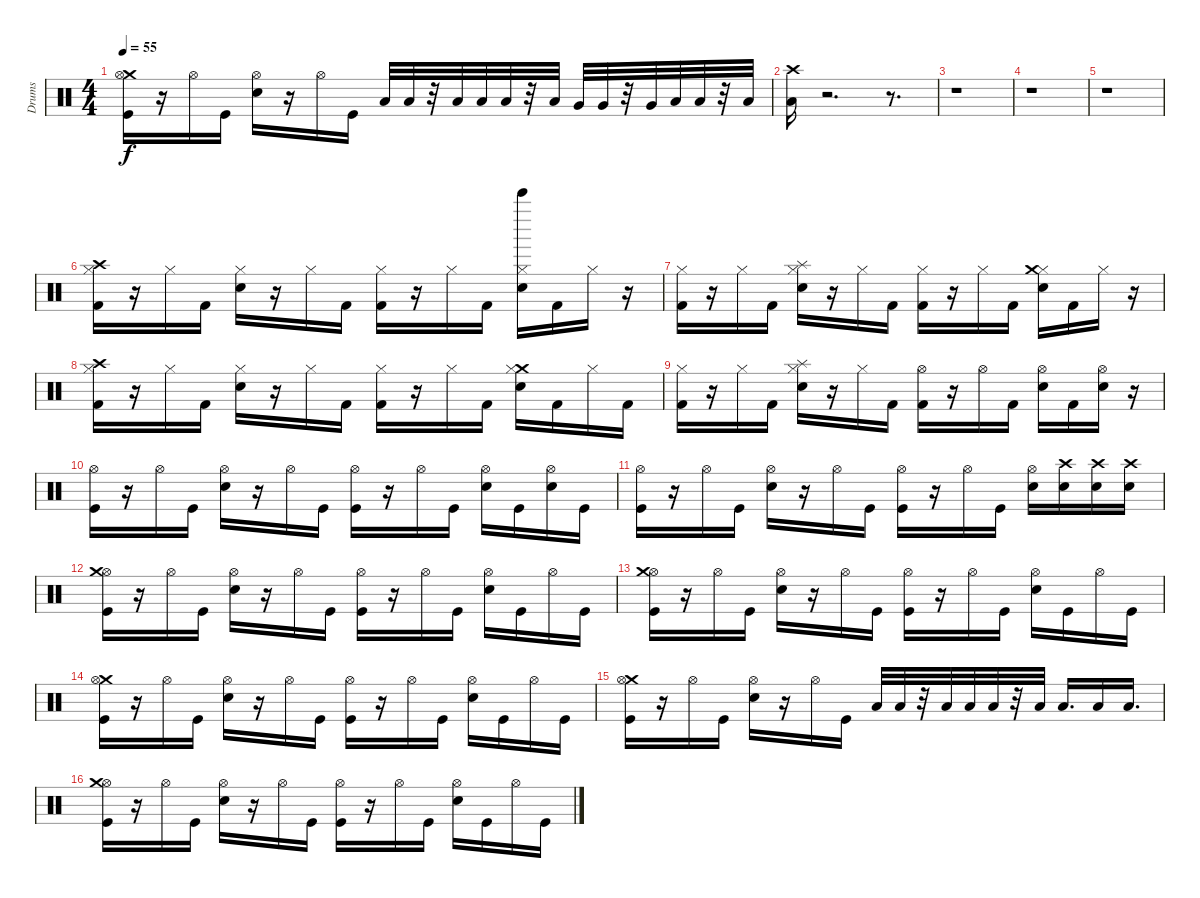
\track ("Drums" "Drums") {instrument percussion}
\staff {score}
\articulation defaults
\ts (4 4)
\tempo 55
\clef neutral
\ks c
("Crash medium (hit)" "Kick (hit)" "Hi-Hat (open)").16{dy f} r.16 "Hi-Hat (open)".16 "Kick (hit)".16 ("Electric Snare (hit)" "Hi-Hat (open)").16 r.16 "Hi-Hat (open)".16 "Kick (hit)".16 "Low Tom (hit)".32 "Low Tom (hit)".32 r.32 "Low Tom (hit)".32 "Low Tom (hit)".32 "Low Tom (hit)".32 r.32 "Low Tom (hit)".32 "Very Low Tom (hit)".32 "Very Low Tom (hit)".32 r.32 "Very Low Tom (hit)".32 "Low Floor Tom (hit)".32 "Low Floor Tom (hit)".32 r.32 "Low Floor Tom (hit)".32 |
("Low Floor Tom (hit)" "Crash high (hit)").16 r.2{d} r.8{d} |
r.1 |
r.1 |
r.1 |
("Crash high (hit)" "Hi-Hat (closed)" "Kick (hit) 2").16 r.16 "Hi-Hat (closed)".16 "Kick (hit) 2".16 ("Hi-Hat (closed)" "Electric Snare (hit)").16 r.16 "Hi-Hat (closed)".16 "Kick (hit) 2".16 ("Kick (hit) 2" "Hi-Hat (closed)").16 r.16 "Hi-Hat (closed)".16 "Kick (hit) 2".16 ("Bell Tree (hit)" "Hi-Hat (closed)" "Electric Snare (hit)").16 "Kick (hit) 2".16 "Hi-Hat (closed)".16 r.16 |
("Kick (hit) 2" "Hi-Hat (closed)").16 r.16 "Hi-Hat (closed)".16 "Kick (hit) 2".16 ("Electric Snare (hit)" "Splash (hit)" "Hi-Hat (closed)").16 r.16 "Hi-Hat (closed)".16 "Kick (hit) 2".16 ("Hi-Hat (closed)" "Kick (hit) 2").16 r.16 "Hi-Hat (closed)".16 "Kick (hit) 2".16 ("Hi-Hat (closed)" "Crash medium (hit)" "Electric Snare (hit)").16 "Kick (hit) 2".16 "Hi-Hat (closed)".16 r.16 |
("Crash high (hit)" "Hi-Hat (closed)" "Kick (hit) 2").16 r.16 "Hi-Hat (closed)".16 "Kick (hit) 2".16 ("Electric Snare (hit)" "Hi-Hat (closed)").16 r.16 "Hi-Hat (closed)".16 "Kick (hit) 2".16 ("Hi-Hat (closed)" "Kick (hit) 2").16 r.16 "Hi-Hat (closed)".16 "Kick (hit) 2".16 ("Crash medium (hit)" "Hi-Hat (closed)" "Electric Snare (hit)").16 "Kick (hit) 2".16 "Hi-Hat (closed)".16 "Kick (hit) 2".16 |
("Hi-Hat (closed)" "Kick (hit) 2").16 r.16 "Hi-Hat (closed)".16 "Kick (hit) 2".16 ("Splash (hit)" "Electric Snare (hit)" "Hi-Hat (closed)").16 r.16 "Hi-Hat (closed)".16 "Kick (hit) 2".16 ("Kick (hit) 2" "Hi-Hat (open)").16 r.16 "Hi-Hat (open)".16 "Kick (hit) 2".16 ("Hi-Hat (open)" "Metronome (bell)").16 "Kick (hit) 2".16 ("Hi-Hat (open)" "Metronome (bell)").16 r.16 |
("Hi-Hat (open)" "Kick (hit)").16 r.16 "Hi-Hat (open)".16 "Kick (hit)".16 ("Hi-Hat (open)" "Electric Snare (hit)").16 r.16 "Hi-Hat (open)".16 "Kick (hit)".16 ("Kick (hit)" "Hi-Hat (open)").16 r.16 "Hi-Hat (open)".16 "Kick (hit)".16 ("Electric Snare (hit)" "Hi-Hat (open)").16 "Kick (hit)".16 ("Electric Snare (hit)" "Hi-Hat (open)").16 "Kick (hit)".16 |
("Kick (hit)" "Hi-Hat (open)").16 r.16 "Hi-Hat (open)".16 "Kick (hit)".16 ("Electric Snare (hit)" "Hi-Hat (open)").16 r.16 "Hi-Hat (open)".16 "Kick (hit)".16 ("Kick (hit)" "Hi-Hat (open)").16 r.16 "Hi-Hat (open)".16 "Kick (hit)".16 ("Electric Snare (hit)" "Hi-Hat (open)").16 ("Crash high (hit)" "Electric Snare (hit)").16 ("Crash high (hit)" "Electric Snare (hit)").16 ("Electric Snare (hit)" "Crash high (hit)").16 |
("Kick (hit)" "Hi-Hat (open)" "Crash medium (hit)").16 r.16 "Hi-Hat (open)".16 "Kick (hit)".16 ("Hi-Hat (open)" "Electric Snare (hit)").16 r.16 "Hi-Hat (open)".16 "Kick (hit)".16 ("Kick (hit)" "Hi-Hat (open)").16 r.16 "Hi-Hat (open)".16 "Kick (hit)".16 ("Electric Snare (hit)" "Hi-Hat (open)").16 "Kick (hit)".16 "Hi-Hat (open)".16 "Kick (hit)".16 |
("Hi-Hat (open)" "Crash medium (hit)" "Kick (hit)").16 r.16 "Hi-Hat (open)".16 "Kick (hit)".16 ("Electric Snare (hit)" "Hi-Hat (open)").16 r.16 "Hi-Hat (open)".16 "Kick (hit)".16 ("Hi-Hat (open)" "Kick (hit)").16 r.16 "Hi-Hat (open)".16 "Kick (hit)".16 ("Hi-Hat (open)" "Electric Snare (hit)").16 "Kick (hit)".16 "Hi-Hat (open)".16 "Kick (hit)".16 |
("Crash medium (hit)" "Hi-Hat (open)" "Kick (hit)").16 r.16 "Hi-Hat (open)".16 "Kick (hit)".16 ("Electric Snare (hit)" "Hi-Hat (open)").16 r.16 "Hi-Hat (open)".16 "Kick (hit)".16 ("Kick (hit)" "Hi-Hat (open)").16 r.16 "Hi-Hat (open)".16 "Kick (hit)".16 ("Electric Snare (hit)" "Hi-Hat (open)").16 "Kick (hit)".16 "Hi-Hat (open)".16 "Kick (hit)".16 |
("Kick (hit)" "Crash medium (hit)" "Hi-Hat (open)").16 r.16 "Hi-Hat (open)".16 "Kick (hit)".16 ("Electric Snare (hit)" "Hi-Hat (open)").16 r.16 "Hi-Hat (open)".16 "Kick (hit)".16 "Low Tom (hit)".32 "Low Tom (hit)".32 r.32 "Low Tom (hit)".32 "Low Tom (hit)".32 "Low Tom (hit)".32 r.32 "Low Tom (hit)".32 "Low Tom (hit)".16{d} "Low Tom (hit)".16 "Low Tom (hit)".16{d} |
("Kick (hit)" "Hi-Hat (open)" "Crash medium (hit)").16 r.16 "Hi-Hat (open)".16 "Kick (hit)".16 ("Hi-Hat (open)" "Electric Snare (hit)").16 r.16 "Hi-Hat (open)".16 "Kick (hit)".16 ("Hi-Hat (open)" "Kick (hit)").16 r.16 "Hi-Hat (open)".16 "Kick (hit)".16 ("Electric Snare (hit)" "Hi-Hat (open)").16 "Kick (hit)".16 "Hi-Hat (open)".16 "Kick (hit)".16
